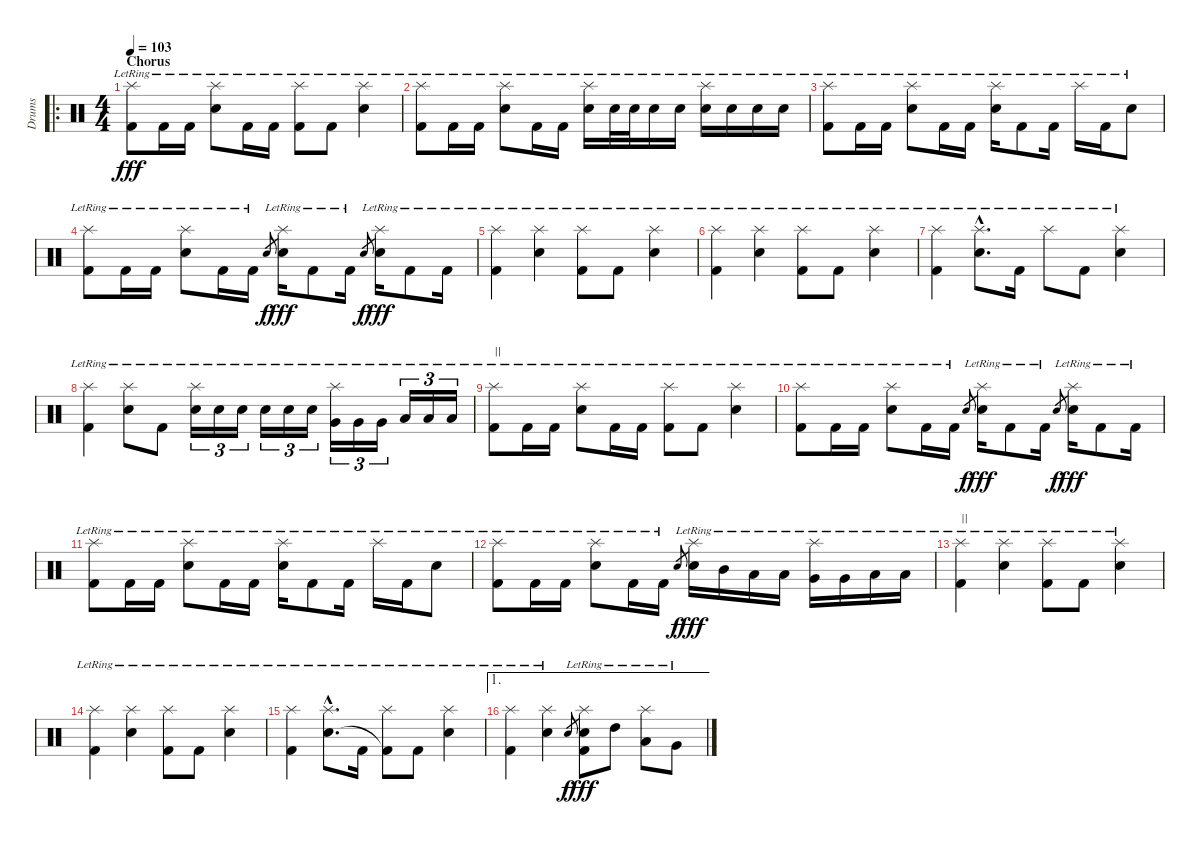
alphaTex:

\track ("Drums" "Drums") {instrument percussion}
\staff {score}
\articulation defaults
\ro
\ts (4 4)
\section ("" "Chorus")
\tempo 103
\clef neutral
\ks c
("Splash (hit)"{lr} "Kick (hit) 2"{lr}).8{dy fff volume 16} "Kick (hit) 2"{lr}.16 "Kick (hit) 2"{lr}.16 ("Splash (hit)"{lr} "Electric Snare (hit)"{lr}).8 "Kick (hit) 2"{lr}.16 "Kick (hit) 2"{lr}.16 ("Splash (hit)"{lr} "Kick (hit) 2"{lr}).8 "Kick (hit) 2"{lr}.8 ("Splash (hit)"{lr} "Electric Snare (hit)"{lr}).4 |
("Splash (hit)"{lr} "Kick (hit) 2"{lr}).8 "Kick (hit) 2"{lr}.16 "Kick (hit) 2"{lr}.16 ("Splash (hit)"{lr} "Electric Snare (hit)"{lr}).8 "Kick (hit) 2"{lr}.16 "Kick (hit) 2"{lr}.16 ("Splash (hit)"{lr} "Electric Snare (hit)"{lr}).16 "Electric Snare (hit)"{lr}.32 "Electric Snare (hit)"{lr}.32 "Electric Snare (hit)"{lr}.16 "Electric Snare (hit)"{lr}.16 ("Splash (hit)"{lr} "Electric Snare (hit)"{lr}).16 "Electric Snare (hit)"{lr}.16 "Electric Snare (hit)"{lr}.16 "Electric Snare (hit)"{lr}.16 |
("Splash (hit)"{lr} "Kick (hit) 2"{lr}).8 "Kick (hit) 2"{lr}.16 "Kick (hit) 2"{lr}.16 ("Splash (hit)"{lr} "Electric Snare (hit)"{lr}).8 "Kick (hit) 2"{lr}.16 "Kick (hit) 2"{lr}.16 ("Splash (hit)"{lr} "Electric Snare (hit)"{lr}).16 "Kick (hit) 2"{lr}.8 "Kick (hit) 2"{lr}.16 "Splash (hit)"{lr}.16 "Kick (hit) 2"{lr}.16 "Electric Snare (hit)"{lr}.8 |
("Splash (hit)"{lr} "Kick (hit) 2"{lr}).8 "Kick (hit) 2"{lr}.16 "Kick (hit) 2"{lr}.16 ("Splash (hit)"{lr} "Electric Snare (hit)"{lr}).8 "Kick (hit) 2"{lr}.16 "Kick (hit) 2"{lr}.16 "Electric Snare (hit)".8{gr dy f} ("Splash (hit)"{lr} "Electric Snare (hit)").16{dy fff} "Kick (hit) 2"{lr}.8 "Kick (hit) 2"{lr}.16 "Electric Snare (hit)".8{gr dy f} ("Splash (hit)"{lr} "Electric Snare (hit)").16{dy fff} "Kick (hit) 2"{lr}.8 "Kick (hit) 2"{lr}.16 |
("Splash (hit)"{lr} "Kick (hit) 2"{lr}).4 ("Splash (hit)"{lr} "Electric Snare (hit)"{lr}).4 ("Splash (hit)"{lr} "Kick (hit) 2"{lr}).8 "Kick (hit) 2"{lr}.8 ("Splash (hit)"{lr} "Electric Snare (hit)"{lr}).4 |
("Splash (hit)"{lr} "Kick (hit) 2"{lr}).4 ("Splash (hit)"{lr} "Electric Snare (hit)"{lr}).4 ("Splash (hit)"{lr} "Kick (hit) 2"{lr}).8 "Kick (hit) 2"{lr}.8 ("Splash (hit)"{lr} "Electric Snare (hit)"{lr}).4 |
("Splash (hit)"{lr} "Kick (hit) 2"{lr}).4 ("Splash (hit)"{hac lr} "Electric Snare (hit)"{hac lr}).8{d} "Kick (hit) 2"{lr}.16 "Splash (hit)"{lr}.8 "Kick (hit) 2"{lr}.8 ("Splash (hit)"{lr} "Electric Snare (hit)"{lr}).4 |
("Splash (hit)"{lr} "Kick (hit) 2"{lr}).4 ("Splash (hit)"{lr} "Electric Snare (hit)"{lr}).8 "Kick (hit) 2"{lr}.8 ("Splash (hit)"{lr} "Electric Snare (hit)"{lr}).16{tu (3 2)} "Electric Snare (hit)"{lr}.16{tu (3 2)} "Electric Snare (hit)"{lr}.16{tu (3 2)} "Electric Snare (hit)"{lr}.16{tu (3 2)} "Electric Snare (hit)"{lr}.16{tu (3 2)} "Electric Snare (hit)"{lr}.16{tu (3 2)} ("Splash (hit)"{lr} "Very Low Tom (hit)"{lr}).16{tu (3 2)} "Very Low Tom (hit)"{lr}.16{tu (3 2)} "Very Low Tom (hit)"{lr}.16{tu (3 2)} "Low Floor Tom (hit)"{lr}.16{tu (3 2)} "Low Floor Tom (hit)"{lr}.16{tu (3 2)} "Low Floor Tom (hit)"{lr}.16{tu (3 2)} |
("Splash (hit)"{lr} "Kick (hit) 2"{lr}).8{txt "||"} "Kick (hit) 2"{lr}.16 "Kick (hit) 2"{lr}.16 ("Splash (hit)"{lr} "Electric Snare (hit)"{lr}).8 "Kick (hit) 2"{lr}.16 "Kick (hit) 2"{lr}.16 ("Splash (hit)"{lr} "Kick (hit) 2"{lr}).8 "Kick (hit) 2"{lr}.8 ("Splash (hit)"{lr} "Electric Snare (hit)"{lr}).4 |
("Splash (hit)"{lr} "Kick (hit) 2"{lr}).8 "Kick (hit) 2"{lr}.16 "Kick (hit) 2"{lr}.16 ("Splash (hit)"{lr} "Electric Snare (hit)"{lr}).8 "Kick (hit) 2"{lr}.16 "Kick (hit) 2"{lr}.16 "Electric Snare (hit)".8{gr dy f} ("Splash (hit)"{lr} "Electric Snare (hit)").16{dy fff} "Kick (hit) 2"{lr}.8 "Kick (hit) 2"{lr}.16 "Electric Snare (hit)".8{gr dy f} ("Splash (hit)"{lr} "Electric Snare (hit)").16{dy fff} "Kick (hit) 2"{lr}.8 "Kick (hit) 2"{lr}.16 |
("Splash (hit)"{lr} "Kick (hit) 2"{lr}).8 "Kick (hit) 2"{lr}.16 "Kick (hit) 2"{lr}.16 ("Splash (hit)"{lr} "Electric Snare (hit)"{lr}).8 "Kick (hit) 2"{lr}.16 "Kick (hit) 2"{lr}.16 ("Splash (hit)"{lr} "Electric Snare (hit)"{lr}).16 "Kick (hit) 2"{lr}.8 "Kick (hit) 2"{lr}.16 "Splash (hit)"{lr}.16 "Kick (hit) 2"{lr}.16 "Electric Snare (hit)"{lr}.8 |
("Splash (hit)"{lr} "Kick (hit) 2"{lr}).8 "Kick (hit) 2"{lr}.16 "Kick (hit) 2"{lr}.16 ("Splash (hit)"{lr} "Electric Snare (hit)"{lr}).8 "Kick (hit) 2"{lr}.16 "Kick (hit) 2"{lr}.16 "Electric Snare (hit)".8{gr dy f} ("Splash (hit)"{lr} "Electric Snare (hit)").16{dy fff} "Mid Tom (hit)"{lr}.16 "Low Tom (hit)"{lr}.16 "Low Tom (hit)"{lr}.16 ("Splash (hit)"{lr} "Very Low Tom (hit)"{lr}).16 "Very Low Tom (hit)"{lr}.16 "Low Floor Tom (hit)"{lr}.16 "Low Floor Tom (hit)"{lr}.16 |
("Splash (hit)"{lr} "Kick (hit) 2"{lr}).4{txt "||"} ("Splash (hit)"{lr} "Electric Snare (hit)"{lr}).4 ("Splash (hit)"{lr} "Kick (hit) 2"{lr}).8 "Kick (hit) 2"{lr}.8 ("Splash (hit)"{lr} "Electric Snare (hit)"{lr}).4 |
("Splash (hit)"{lr} "Kick (hit) 2"{lr}).4 ("Splash (hit)"{lr} "Electric Snare (hit)"{lr}).4 ("Splash (hit)"{lr} "Kick (hit) 2"{lr}).8 "Kick (hit) 2"{lr}.8 ("Splash (hit)"{lr} "Electric Snare (hit)"{lr}).4 |
("Splash (hit)"{lr} "Kick (hit) 2"{lr}).4 ("Splash (hit)"{hac lr} "Electric Snare (hit)"{hac lr}).8{d} "Kick (hit) 2"{lr}.16 ("Splash (hit)"{lr} "Kick (hit) 2"{t}).8 "Kick (hit) 2"{lr}.8 ("Splash (hit)"{lr} "Electric Snare (hit)"{lr}).4 |
\ae 1
("Splash (hit)"{lr} "Kick (hit) 2"{lr}).4{volume 16} ("Splash (hit)"{lr} "Electric Snare (hit)"{lr}).4 "Electric Snare (hit)".8{gr dy f} ("Splash (hit)"{lr} "Electric Snare (hit)" "Kick (hit) 2"{lr}).8{dy fff} "High Tom (hit)"{lr}.8 ("Splash (hit)"{lr} "Low Tom (hit)"{lr}).8 "Very Low Tom (hit)"{lr}.8
